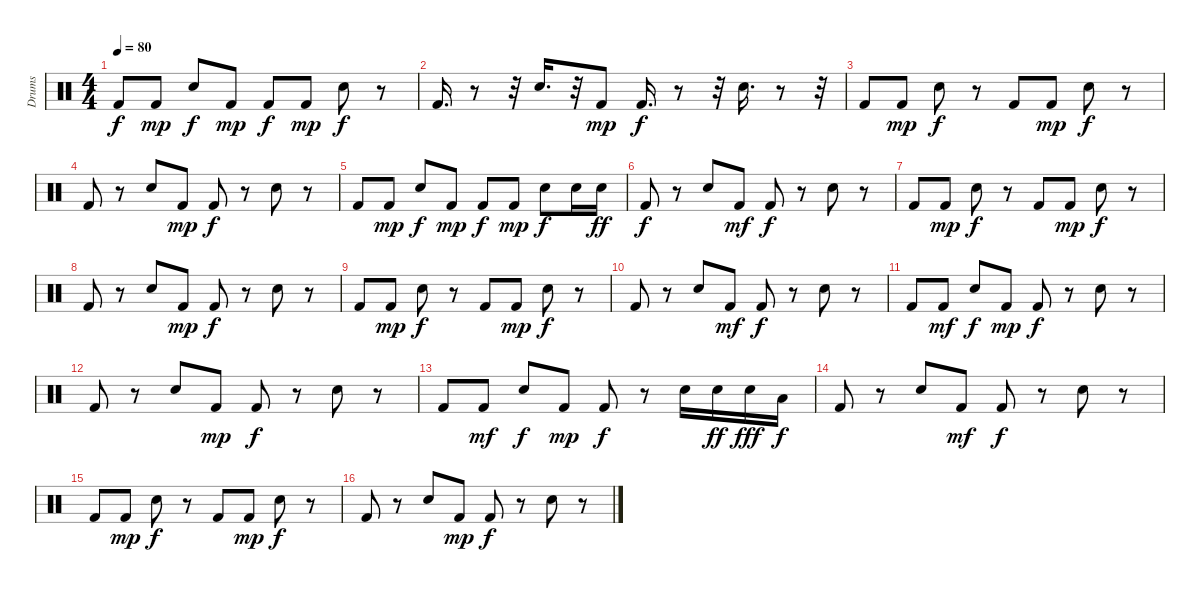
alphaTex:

\track ("Drums" "Drums") {instrument percussion}
\staff {score}
\articulation defaults
\ts (4 4)
\tempo 80
\clef neutral
\ks c "Kick (hit) 2".8{dy f} "Kick (hit) 2".8{dy mp} "Electric Snare (hit)".8{dy f} "Kick (hit) 2".8{dy mp} "Kick (hit) 2".8{dy f} "Kick (hit) 2".8{dy mp} "Electric Snare (hit)".8{dy f}
r.8 |
"Kick (hit) 2".16{d} r.8 r.32 "Electric Snare (hit)".16{d} r.32 "Kick (hit) 2".8{dy mp} "Kick (hit) 2".16{d dy f} r.8 r.32 "Electric Snare (hit)".16{d} r.8 r.32 |
"Kick (hit) 2".8 "Kick (hit) 2".8{dy mp} "Electric Snare (hit)".8{dy f} r.8 "Kick (hit) 2".8 "Kick (hit) 2".8{dy mp} "Electric Snare (hit)".8{dy f} r.8 |
"Kick (hit) 2".8 r.8 "Electric Snare (hit)".8 "Kick (hit) 2".8{dy mp} "Kick (hit) 2".8{dy f} r.8 "Electric Snare (hit)".8 r.8 |
"Kick (hit) 2".8 "Kick (hit) 2".8{dy mp} "Electric Snare (hit)".8{dy f} "Kick (hit) 2".8{dy mp} "Kick (hit) 2".8{dy f} "Kick (hit) 2".8{dy mp} "Electric Snare (hit)".8{dy f} "Electric Snare (hit)".16 "Electric Snare (hit)".16{dy ff} |
"Kick (hit) 2".8{dy f} r.8 "Electric Snare (hit)".8 "Kick (hit) 2".8{dy mf} "Kick (hit) 2".8{dy f} r.8 "Electric Snare (hit)".8 r.8 |
"Kick (hit) 2".8 "Kick (hit) 2".8{dy mp} "Electric Snare (hit)".8{dy f} r.8 "Kick (hit) 2".8 "Kick (hit) 2".8{dy mp} "Electric Snare (hit)".8{dy f} r.8 |
"Kick (hit) 2".8 r.8 "Electric Snare (hit)".8 "Kick (hit) 2".8{dy mp} "Kick (hit) 2".8{dy f} r.8 "Electric Snare (hit)".8 r.8 |
"Kick (hit) 2".8 "Kick (hit) 2".8{dy mp} "Electric Snare (hit)".8{dy f} r.8 "Kick (hit) 2".8 "Kick (hit) 2".8{dy mp} "Electric Snare (hit)".8{dy f} r.8 |
"Kick (hit) 2".8 r.8 "Electric Snare (hit)".8 "Kick (hit) 2".8{dy mf} "Kick (hit) 2".8{dy f} r.8 "Electric Snare (hit)".8 r.8 |
"Kick (hit) 2".8 "Kick (hit) 2".8{dy mf} "Electric Snare (hit)".8{dy f} "Kick (hit) 2".8{dy mp} "Kick (hit) 2".8{dy f} r.8 "Electric Snare (hit)".8 r.8 |
"Kick (hit) 2".8 r.8 "Electric Snare (hit)".8 "Kick (hit) 2".8{dy mp} "Kick (hit) 2".8{dy f} r.8 "Electric Snare (hit)".8 r.8 |
"Kick (hit) 2".8 "Kick (hit) 2".8{dy mf} "Electric Snare (hit)".8{dy f} "Kick (hit) 2".8{dy mp} "Kick (hit) 2".8{dy f} r.8 "Electric Snare (hit)".16 "Electric Snare (hit)".16{dy ff} "Electric Snare (hit)".16{dy fff} "Low Floor Tom (hit)".16{dy f} |
"Kick (hit) 2".8 r.8 "Electric Snare (hit)".8 "Kick (hit) 2".8{dy mf} "Kick (hit) 2".8{dy f} r.8 "Electric Snare (hit)".8 r.8 |
"Kick (hit) 2".8 "Kick (hit) 2".8{dy mp} "Electric Snare (hit)".8{dy f} r.8 "Kick (hit) 2".8 "Kick (hit) 2".8{dy mp} "Electric Snare (hit)".8{dy f} r.8 |
"Kick (hit) 2".8 r.8 "Electric Snare (hit)".8 "Kick (hit) 2".8{dy mp} "Kick (hit) 2".8{dy f} r.8 "Electric Snare (hit)".8 r.8
